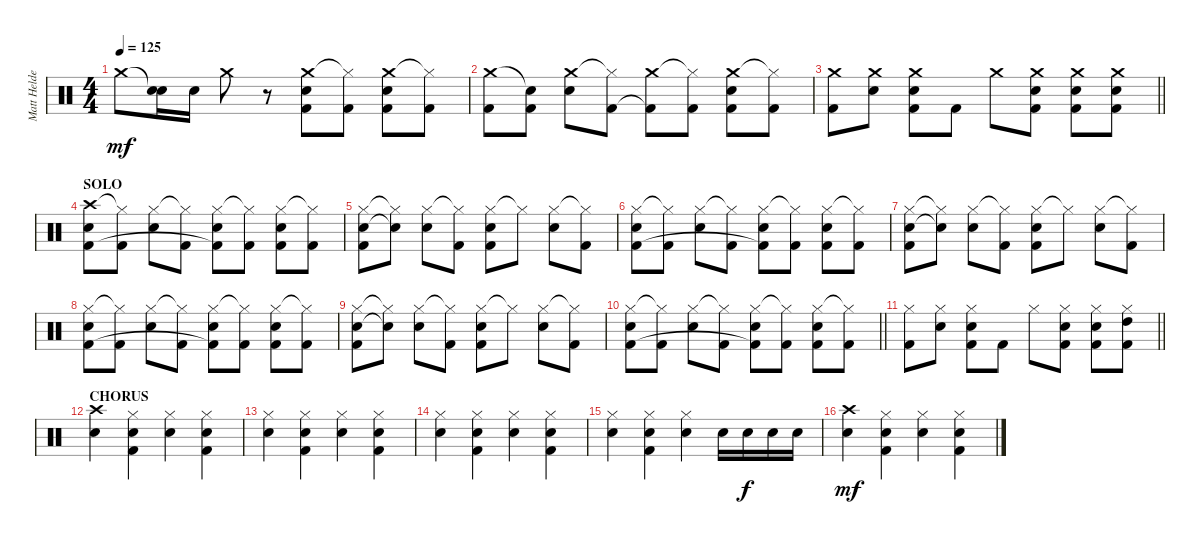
\track ("Matt Helders" "Matt Helde") {instrument percussion}
\staff {score}
\articulation defaults
\ts (4 4)
\tempo 125
\clef neutral
\ks c "Crash medium (hit)".8{dy mf}
("Snare (hit)"{t} "Electric Snare (hit)").16 "Electric Snare (hit)".16 "Crash medium (hit)".8 r.8 ("Crash medium (hit)" "Electric Snare (hit)" "Kick (hit) 2"{t}).8 ("Hi-Hat (closed)"{t} "Kick (hit) 2").8 ("Crash medium (hit)" "Electric Snare (hit)" "Kick (hit) 2").8 ("Hi-Hat (closed)"{t} "Kick (hit) 2").8 |
("Crash medium (hit)" "Kick (hit) 2").8 ("Snare (hit)"{t} "Kick (hit) 2").8 ("Crash medium (hit)" "Electric Snare (hit)").8 ("Hi-Hat (closed)"{t} "Kick (hit) 2").8 ("Crash medium (hit)" "Kick (hit) 2"{t}).8 ("Hi-Hat (closed)"{t} "Kick (hit) 2").8 ("Crash medium (hit)" "Electric Snare (hit)" "Kick (hit) 2").8 ("Hi-Hat (closed)"{t} "Kick (hit) 2").8 |
\barLineRight lightlight
("Crash medium (hit)" "Kick (hit) 2").8 ("Crash medium (hit)" "Electric Snare (hit)").8 ("Crash medium (hit)" "Electric Snare (hit)" "Kick (hit) 2").8 "Kick (hit) 2".8 "Crash medium (hit)".8 ("Crash medium (hit)" "Electric Snare (hit)" "Kick (hit) 2").8 ("Crash medium (hit)" "Electric Snare (hit)" "Kick (hit) 2").8 ("Crash medium (hit)" "Electric Snare (hit)" "Kick (hit) 2").8 |
\section ("" "SOLO")
("Crash high (hit)" "Electric Snare (hit)" "Kick (hit) 2").8 ("Hi-Hat (closed)"{t} "Kick (hit) 2").8 ("Hi-Hat (closed)" "Electric Snare (hit)").8 ("Hi-Hat (closed)"{t} "Kick (hit) 2").8 ("Hi-Hat (closed)" "Electric Snare (hit)" "Kick (hit) 2"{t}).8 ("Hi-Hat (closed)"{t} "Kick (hit) 2").8 ("Hi-Hat (closed)" "Electric Snare (hit)" "Kick (hit) 2").8 ("Hi-Hat (closed)"{t} "Kick (hit) 2").8 |
("Hi-Hat (closed)" "Electric Snare (hit)" "Kick (hit) 2").8 ("Hi-Hat (closed)"{t} "Snare (hit)"{t}).8 ("Hi-Hat (closed)" "Electric Snare (hit)").8 ("Hi-Hat (closed)"{t} "Kick (hit) 2").8 ("Hi-Hat (closed)" "Electric Snare (hit)" "Kick (hit) 2").8 "Hi-Hat (closed)"{t}.8 ("Hi-Hat (closed)" "Electric Snare (hit)").8 ("Hi-Hat (closed)"{t} "Kick (hit) 2").8 |
("Hi-Hat (closed)" "Electric Snare (hit)" "Kick (hit) 2").8 ("Hi-Hat (closed)"{t} "Kick (hit) 2").8 ("Hi-Hat (closed)" "Electric Snare (hit)").8 ("Hi-Hat (closed)"{t} "Kick (hit) 2").8 ("Hi-Hat (closed)" "Electric Snare (hit)" "Kick (hit) 2"{t}).8 ("Hi-Hat (closed)"{t} "Kick (hit) 2").8 ("Hi-Hat (closed)" "Electric Snare (hit)" "Kick (hit) 2").8 ("Hi-Hat (closed)"{t} "Kick (hit) 2").8 |
("Hi-Hat (closed)" "Electric Snare (hit)" "Kick (hit) 2").8 ("Hi-Hat (closed)"{t} "Snare (hit)"{t}).8 ("Hi-Hat (closed)" "Electric Snare (hit)").8 ("Hi-Hat (closed)"{t} "Kick (hit) 2").8 ("Hi-Hat (closed)" "Electric Snare (hit)" "Kick (hit) 2").8 "Hi-Hat (closed)"{t}.8 ("Hi-Hat (closed)" "Electric Snare (hit)").8 ("Hi-Hat (closed)"{t} "Kick (hit) 2").8 |
("Hi-Hat (closed)" "Electric Snare (hit)" "Kick (hit) 2").8 ("Hi-Hat (closed)"{t} "Kick (hit) 2").8 ("Hi-Hat (closed)" "Electric Snare (hit)").8 ("Hi-Hat (closed)"{t} "Kick (hit) 2").8 ("Hi-Hat (closed)" "Electric Snare (hit)" "Kick (hit) 2"{t}).8 ("Hi-Hat (closed)"{t} "Kick (hit) 2").8 ("Hi-Hat (closed)" "Electric Snare (hit)" "Kick (hit) 2").8 ("Hi-Hat (closed)"{t} "Kick (hit) 2").8 |
("Hi-Hat (closed)" "Electric Snare (hit)" "Kick (hit) 2").8 ("Hi-Hat (closed)"{t} "Snare (hit)"{t}).8 ("Hi-Hat (closed)" "Electric Snare (hit)").8 ("Hi-Hat (closed)"{t} "Kick (hit) 2").8 ("Hi-Hat (closed)" "Electric Snare (hit)" "Kick (hit) 2").8 "Hi-Hat (closed)"{t}.8 ("Hi-Hat (closed)" "Electric Snare (hit)").8 ("Hi-Hat (closed)"{t} "Kick (hit) 2").8 |
\barLineRight lightlight
("Hi-Hat (closed)" "Electric Snare (hit)" "Kick (hit) 2").8 ("Hi-Hat (closed)"{t} "Kick (hit) 2").8 ("Hi-Hat (closed)" "Electric Snare (hit)").8 ("Hi-Hat (closed)"{t} "Kick (hit) 2").8 ("Hi-Hat (closed)" "Electric Snare (hit)" "Kick (hit) 2"{t}).8 ("Hi-Hat (closed)"{t} "Kick (hit) 2").8 ("Hi-Hat (closed)" "Electric Snare (hit)" "Kick (hit) 2").8 ("Hi-Hat (closed)"{t} "Kick (hit) 2").8 |
\barLineRight lightlight
("Hi-Hat (closed)" "Kick (hit) 2").8 ("Hi-Hat (closed)" "Electric Snare (hit)").8 ("Hi-Hat (closed)" "Electric Snare (hit)" "Kick (hit) 2").8 "Kick (hit) 2".8 "Hi-Hat (closed)".8 ("Hi-Hat (closed)" "Electric Snare (hit)" "Kick (hit) 2").8 ("Hi-Hat (closed)" "Electric Snare (hit)" "Kick (hit) 2").8 ("Hi-Hat (closed)" "High Tom (hit)" "Kick (hit) 2").8 |
\section ("" "CHORUS")
("Crash high (hit)" "Electric Snare (hit)").4 ("Hi-Hat (closed)" "Electric Snare (hit)" "Kick (hit) 2").4 ("Hi-Hat (closed)" "Electric Snare (hit)").4 ("Hi-Hat (closed)" "Electric Snare (hit)" "Kick (hit) 2").4 |
("Hi-Hat (closed)" "Electric Snare (hit)").4 ("Hi-Hat (closed)" "Electric Snare (hit)" "Kick (hit) 2").4 ("Hi-Hat (closed)" "Electric Snare (hit)").4 ("Hi-Hat (closed)" "Electric Snare (hit)" "Kick (hit) 2").4 |
("Hi-Hat (closed)" "Electric Snare (hit)").4 ("Hi-Hat (closed)" "Electric Snare (hit)" "Kick (hit) 2").4 ("Hi-Hat (closed)" "Electric Snare (hit)").4 ("Hi-Hat (closed)" "Electric Snare (hit)" "Kick (hit) 2").4 |
("Hi-Hat (closed)" "Electric Snare (hit)").4 ("Hi-Hat (closed)" "Electric Snare (hit)" "Kick (hit) 2").4 ("Hi-Hat (closed)" "Electric Snare (hit)").4 "Electric Snare (hit)".16 "Electric Snare (hit)".16{dy f} "Electric Snare (hit)".16 "Electric Snare (hit)".16 |
("Crash high (hit)" "Electric Snare (hit)").4{dy mf} ("Hi-Hat (closed)" "Electric Snare (hit)" "Kick (hit) 2").4 ("Hi-Hat (closed)" "Electric Snare (hit)").4 ("Hi-Hat (closed)" "Electric Snare (hit)" "Kick (hit) 2").4
